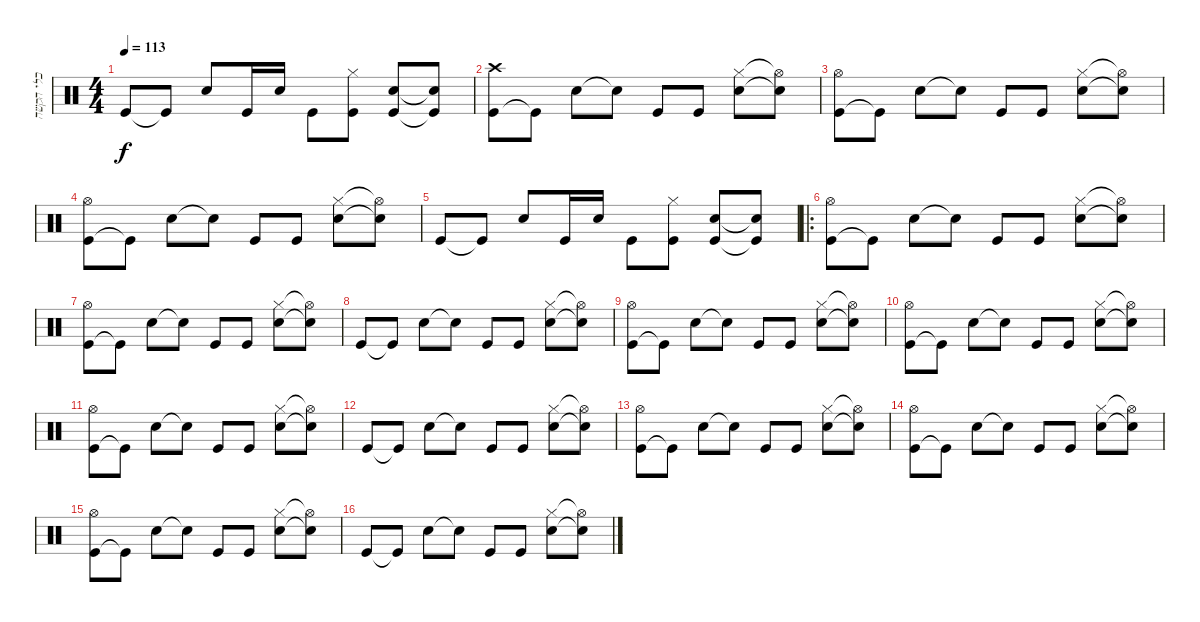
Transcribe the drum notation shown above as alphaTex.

\track ("כלי הקשה" "כלי הקשה") {instrument percussion}
\staff {score}
\articulation defaults
\ts (4 4)
\tempo 113
\clef neutral
\ks c "Kick (hit)".8{dy f} "Kick (hit)"{t}.8 "Electric Snare (hit)".8 "Kick (hit)".16 "Electric Snare (hit)".16 "Kick (hit)".8
("Kick (hit)" "Hi-Hat (closed)").8 ("Snare (hit) 2" "Kick (hit)").8 ("Snare (hit) 2"{t} "Kick (hit)"{t}).8 |
("Kick (hit)" "Crash high (hit)").8 "Kick (hit)"{t}.8 "Electric Snare (hit)".8 "Snare (hit)"{t}.8 "Kick (hit)".8 "Kick (hit)".8 ("Snare (hit) 2" "Hi-Hat (closed)").8 ("Snare (hit)"{t} "Hi-Hat (open)"{t}).8 |
("Kick (hit)" "Hi-Hat (open)").8 "Kick (hit)"{t}.8 "Electric Snare (hit)".8 "Snare (hit)"{t}.8 "Kick (hit)".8 "Kick (hit)".8 ("Snare (hit) 2" "Hi-Hat (closed)").8 ("Snare (hit)"{t} "Hi-Hat (open)"{t}).8 |
("Kick (hit)" "Hi-Hat (open)").8 "Kick (hit)"{t}.8 "Electric Snare (hit)".8 "Snare (hit)"{t}.8 "Kick (hit)".8 "Kick (hit)".8 ("Snare (hit) 2" "Hi-Hat (closed)").8 ("Snare (hit)"{t} "Hi-Hat (open)"{t}).8 |
"Kick (hit)".8 "Kick (hit)"{t}.8 "Electric Snare (hit)".8 "Kick (hit)".16 "Electric Snare (hit)".16 "Kick (hit)".8 ("Kick (hit)" "Hi-Hat (closed)").8 ("Snare (hit) 2" "Kick (hit)").8 ("Snare (hit) 2"{t} "Kick (hit)"{t}).8 |
\ro
("Kick (hit)" "Hi-Hat (open)").8 "Kick (hit)"{t}.8 "Electric Snare (hit)".8 "Snare (hit)"{t}.8 "Kick (hit)".8 "Kick (hit)".8 ("Snare (hit) 2" "Hi-Hat (closed)").8 ("Snare (hit)"{t} "Hi-Hat (open)"{t}).8 |
("Kick (hit)" "Hi-Hat (open)").8 "Kick (hit)"{t}.8 "Electric Snare (hit)".8 "Snare (hit)"{t}.8 "Kick (hit)".8 "Kick (hit)".8 ("Snare (hit) 2" "Hi-Hat (closed)").8 ("Snare (hit)"{t} "Hi-Hat (open)"{t}).8 |
"Kick (hit)".8 "Kick (hit)"{t}.8 "Electric Snare (hit)".8 "Snare (hit)"{t}.8 "Kick (hit)".8 "Kick (hit)".8 ("Snare (hit) 2" "Hi-Hat (closed)").8 ("Snare (hit)"{t} "Hi-Hat (open)"{t}).8 |
("Kick (hit)" "Hi-Hat (open)").8 "Kick (hit)"{t}.8 "Electric Snare (hit)".8 "Snare (hit)"{t}.8 "Kick (hit)".8 "Kick (hit)".8 ("Snare (hit) 2" "Hi-Hat (closed)").8 ("Snare (hit)"{t} "Hi-Hat (open)"{t}).8 |
("Kick (hit)" "Hi-Hat (open)").8 "Kick (hit)"{t}.8 "Electric Snare (hit)".8 "Snare (hit)"{t}.8 "Kick (hit)".8 "Kick (hit)".8 ("Snare (hit) 2" "Hi-Hat (closed)").8 ("Snare (hit)"{t} "Hi-Hat (open)"{t}).8 |
("Kick (hit)" "Hi-Hat (open)").8 "Kick (hit)"{t}.8 "Electric Snare (hit)".8 "Snare (hit)"{t}.8 "Kick (hit)".8 "Kick (hit)".8 ("Snare (hit) 2" "Hi-Hat (closed)").8 ("Snare (hit)"{t} "Hi-Hat (open)"{t}).8 |
"Kick (hit)".8 "Kick (hit)"{t}.8 "Electric Snare (hit)".8 "Snare (hit)"{t}.8 "Kick (hit)".8 "Kick (hit)".8 ("Snare (hit) 2" "Hi-Hat (closed)").8 ("Snare (hit)"{t} "Hi-Hat (open)"{t}).8 |
("Kick (hit)" "Hi-Hat (open)").8 "Kick (hit)"{t}.8 "Electric Snare (hit)".8 "Snare (hit)"{t}.8 "Kick (hit)".8 "Kick (hit)".8 ("Snare (hit) 2" "Hi-Hat (closed)").8 ("Snare (hit)"{t} "Hi-Hat (open)"{t}).8 |
("Kick (hit)" "Hi-Hat (open)").8 "Kick (hit)"{t}.8 "Electric Snare (hit)".8 "Snare (hit)"{t}.8 "Kick (hit)".8 "Kick (hit)".8 ("Snare (hit) 2" "Hi-Hat (closed)").8 ("Snare (hit)"{t} "Hi-Hat (open)"{t}).8 |
("Kick (hit)" "Hi-Hat (open)").8 "Kick (hit)"{t}.8 "Electric Snare (hit)".8 "Snare (hit)"{t}.8 "Kick (hit)".8 "Kick (hit)".8 ("Snare (hit) 2" "Hi-Hat (closed)").8 ("Snare (hit)"{t} "Hi-Hat (open)"{t}).8 |
"Kick (hit)".8 "Kick (hit)"{t}.8 "Electric Snare (hit)".8 "Snare (hit)"{t}.8 "Kick (hit)".8 "Kick (hit)".8 ("Snare (hit) 2" "Hi-Hat (closed)").8 ("Snare (hit)"{t} "Hi-Hat (open)"{t}).8
